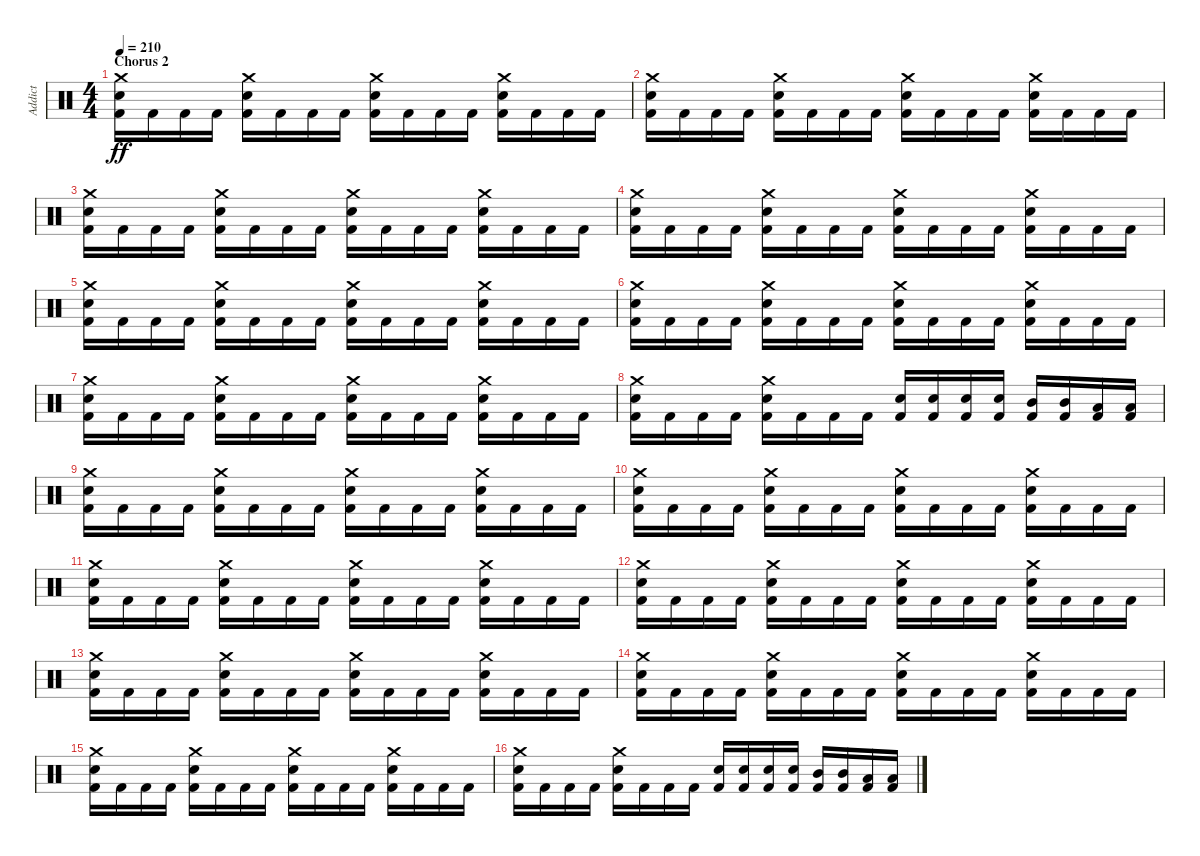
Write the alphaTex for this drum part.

\track ("Addict" "Addict") {instrument percussion}
\staff {score}
\articulation defaults
\ts (4 4)
\section ("" "Chorus 2")
\tempo 210
\clef neutral
\ks c
("Kick (hit) 2" "Snare (hit) 2" "Crash medium (hit)").16{dy ff} "Kick (hit) 2".16 "Kick (hit) 2".16 "Kick (hit) 2".16 ("Kick (hit) 2" "Snare (hit) 2" "Crash medium (hit)").16 "Kick (hit) 2".16 "Kick (hit) 2".16 "Kick (hit) 2".16 ("Kick (hit) 2" "Snare (hit) 2" "Crash medium (hit)").16 "Kick (hit) 2".16 "Kick (hit) 2".16 "Kick (hit) 2".16 ("Kick (hit) 2" "Snare (hit) 2" "Crash medium (hit)").16 "Kick (hit) 2".16 "Kick (hit) 2".16 "Kick (hit) 2".16 |
("Kick (hit) 2" "Snare (hit) 2" "Crash medium (hit)").16 "Kick (hit) 2".16 "Kick (hit) 2".16 "Kick (hit) 2".16 ("Kick (hit) 2" "Snare (hit) 2" "Crash medium (hit)").16 "Kick (hit) 2".16 "Kick (hit) 2".16 "Kick (hit) 2".16 ("Kick (hit) 2" "Snare (hit) 2" "Crash medium (hit)").16 "Kick (hit) 2".16 "Kick (hit) 2".16 "Kick (hit) 2".16 ("Kick (hit) 2" "Snare (hit) 2" "Crash medium (hit)").16 "Kick (hit) 2".16 "Kick (hit) 2".16 "Kick (hit) 2".16 |
("Kick (hit) 2" "Snare (hit) 2" "Crash medium (hit)").16 "Kick (hit) 2".16 "Kick (hit) 2".16 "Kick (hit) 2".16 ("Kick (hit) 2" "Snare (hit) 2" "Crash medium (hit)").16 "Kick (hit) 2".16 "Kick (hit) 2".16 "Kick (hit) 2".16 ("Kick (hit) 2" "Snare (hit) 2" "Crash medium (hit)").16 "Kick (hit) 2".16 "Kick (hit) 2".16 "Kick (hit) 2".16 ("Kick (hit) 2" "Snare (hit) 2" "Crash medium (hit)").16 "Kick (hit) 2".16 "Kick (hit) 2".16 "Kick (hit) 2".16 |
("Kick (hit) 2" "Snare (hit) 2" "Crash medium (hit)").16 "Kick (hit) 2".16 "Kick (hit) 2".16 "Kick (hit) 2".16 ("Kick (hit) 2" "Snare (hit) 2" "Crash medium (hit)").16 "Kick (hit) 2".16 "Kick (hit) 2".16 "Kick (hit) 2".16 ("Kick (hit) 2" "Snare (hit) 2" "Crash medium (hit)").16 "Kick (hit) 2".16 "Kick (hit) 2".16 "Kick (hit) 2".16 ("Kick (hit) 2" "Snare (hit) 2" "Crash medium (hit)").16 "Kick (hit) 2".16 "Kick (hit) 2".16 "Kick (hit) 2".16 |
("Kick (hit) 2" "Snare (hit) 2" "Crash medium (hit)").16 "Kick (hit) 2".16 "Kick (hit) 2".16 "Kick (hit) 2".16 ("Kick (hit) 2" "Snare (hit) 2" "Crash medium (hit)").16 "Kick (hit) 2".16 "Kick (hit) 2".16 "Kick (hit) 2".16 ("Kick (hit) 2" "Snare (hit) 2" "Crash medium (hit)").16 "Kick (hit) 2".16 "Kick (hit) 2".16 "Kick (hit) 2".16 ("Kick (hit) 2" "Snare (hit) 2" "Crash medium (hit)").16 "Kick (hit) 2".16 "Kick (hit) 2".16 "Kick (hit) 2".16 |
("Kick (hit) 2" "Snare (hit) 2" "Crash medium (hit)").16 "Kick (hit) 2".16 "Kick (hit) 2".16 "Kick (hit) 2".16 ("Kick (hit) 2" "Snare (hit) 2" "Crash medium (hit)").16 "Kick (hit) 2".16 "Kick (hit) 2".16 "Kick (hit) 2".16 ("Kick (hit) 2" "Snare (hit) 2" "Crash medium (hit)").16 "Kick (hit) 2".16 "Kick (hit) 2".16 "Kick (hit) 2".16 ("Kick (hit) 2" "Snare (hit) 2" "Crash medium (hit)").16 "Kick (hit) 2".16 "Kick (hit) 2".16 "Kick (hit) 2".16 |
("Kick (hit) 2" "Snare (hit) 2" "Crash medium (hit)").16 "Kick (hit) 2".16 "Kick (hit) 2".16 "Kick (hit) 2".16 ("Kick (hit) 2" "Snare (hit) 2" "Crash medium (hit)").16 "Kick (hit) 2".16 "Kick (hit) 2".16 "Kick (hit) 2".16 ("Kick (hit) 2" "Snare (hit) 2" "Crash medium (hit)").16 "Kick (hit) 2".16 "Kick (hit) 2".16 "Kick (hit) 2".16 ("Kick (hit) 2" "Snare (hit) 2" "Crash medium (hit)").16 "Kick (hit) 2".16 "Kick (hit) 2".16 "Kick (hit) 2".16 |
("Kick (hit) 2" "Snare (hit) 2" "Crash medium (hit)").16 "Kick (hit) 2".16 "Kick (hit) 2".16 "Kick (hit) 2".16 ("Kick (hit) 2" "Snare (hit) 2" "Crash medium (hit)").16 "Kick (hit) 2".16 "Kick (hit) 2".16 "Kick (hit) 2".16 ("Kick (hit) 2" "Snare (hit) 2").16 ("Kick (hit) 2" "Snare (hit) 2").16 ("Kick (hit) 2" "Snare (hit) 2").16 ("Kick (hit) 2" "Snare (hit) 2").16 ("Kick (hit) 2" "Mid Tom (hit)").16 ("Kick (hit) 2" "Mid Tom (hit)").16 ("Kick (hit) 2" "Low Tom (hit)").16 ("Kick (hit) 2" "Low Tom (hit)").16 |
("Kick (hit) 2" "Snare (hit) 2" "Crash medium (hit)").16 "Kick (hit) 2".16 "Kick (hit) 2".16 "Kick (hit) 2".16 ("Kick (hit) 2" "Snare (hit) 2" "Crash medium (hit)").16 "Kick (hit) 2".16 "Kick (hit) 2".16 "Kick (hit) 2".16 ("Kick (hit) 2" "Snare (hit) 2" "Crash medium (hit)").16 "Kick (hit) 2".16 "Kick (hit) 2".16 "Kick (hit) 2".16 ("Kick (hit) 2" "Snare (hit) 2" "Crash medium (hit)").16 "Kick (hit) 2".16 "Kick (hit) 2".16 "Kick (hit) 2".16 |
("Kick (hit) 2" "Snare (hit) 2" "Crash medium (hit)").16 "Kick (hit) 2".16 "Kick (hit) 2".16 "Kick (hit) 2".16 ("Kick (hit) 2" "Snare (hit) 2" "Crash medium (hit)").16 "Kick (hit) 2".16 "Kick (hit) 2".16 "Kick (hit) 2".16 ("Kick (hit) 2" "Snare (hit) 2" "Crash medium (hit)").16 "Kick (hit) 2".16 "Kick (hit) 2".16 "Kick (hit) 2".16 ("Kick (hit) 2" "Snare (hit) 2" "Crash medium (hit)").16 "Kick (hit) 2".16 "Kick (hit) 2".16 "Kick (hit) 2".16 |
("Kick (hit) 2" "Snare (hit) 2" "Crash medium (hit)").16 "Kick (hit) 2".16 "Kick (hit) 2".16 "Kick (hit) 2".16 ("Kick (hit) 2" "Snare (hit) 2" "Crash medium (hit)").16 "Kick (hit) 2".16 "Kick (hit) 2".16 "Kick (hit) 2".16 ("Kick (hit) 2" "Snare (hit) 2" "Crash medium (hit)").16 "Kick (hit) 2".16 "Kick (hit) 2".16 "Kick (hit) 2".16 ("Kick (hit) 2" "Snare (hit) 2" "Crash medium (hit)").16 "Kick (hit) 2".16 "Kick (hit) 2".16 "Kick (hit) 2".16 |
("Kick (hit) 2" "Snare (hit) 2" "Crash medium (hit)").16 "Kick (hit) 2".16 "Kick (hit) 2".16 "Kick (hit) 2".16 ("Kick (hit) 2" "Snare (hit) 2" "Crash medium (hit)").16 "Kick (hit) 2".16 "Kick (hit) 2".16 "Kick (hit) 2".16 ("Kick (hit) 2" "Snare (hit) 2" "Crash medium (hit)").16 "Kick (hit) 2".16 "Kick (hit) 2".16 "Kick (hit) 2".16 ("Kick (hit) 2" "Snare (hit) 2" "Crash medium (hit)").16 "Kick (hit) 2".16 "Kick (hit) 2".16 "Kick (hit) 2".16 |
("Kick (hit) 2" "Snare (hit) 2" "Crash medium (hit)").16 "Kick (hit) 2".16 "Kick (hit) 2".16 "Kick (hit) 2".16 ("Kick (hit) 2" "Snare (hit) 2" "Crash medium (hit)").16 "Kick (hit) 2".16 "Kick (hit) 2".16 "Kick (hit) 2".16 ("Kick (hit) 2" "Snare (hit) 2" "Crash medium (hit)").16 "Kick (hit) 2".16 "Kick (hit) 2".16 "Kick (hit) 2".16 ("Kick (hit) 2" "Snare (hit) 2" "Crash medium (hit)").16 "Kick (hit) 2".16 "Kick (hit) 2".16 "Kick (hit) 2".16 |
("Kick (hit) 2" "Snare (hit) 2" "Crash medium (hit)").16 "Kick (hit) 2".16 "Kick (hit) 2".16 "Kick (hit) 2".16 ("Kick (hit) 2" "Snare (hit) 2" "Crash medium (hit)").16 "Kick (hit) 2".16 "Kick (hit) 2".16 "Kick (hit) 2".16 ("Kick (hit) 2" "Snare (hit) 2" "Crash medium (hit)").16 "Kick (hit) 2".16 "Kick (hit) 2".16 "Kick (hit) 2".16 ("Kick (hit) 2" "Snare (hit) 2" "Crash medium (hit)").16 "Kick (hit) 2".16 "Kick (hit) 2".16 "Kick (hit) 2".16 |
("Kick (hit) 2" "Snare (hit) 2" "Crash medium (hit)").16 "Kick (hit) 2".16 "Kick (hit) 2".16 "Kick (hit) 2".16 ("Kick (hit) 2" "Snare (hit) 2" "Crash medium (hit)").16 "Kick (hit) 2".16 "Kick (hit) 2".16 "Kick (hit) 2".16 ("Kick (hit) 2" "Snare (hit) 2" "Crash medium (hit)").16 "Kick (hit) 2".16 "Kick (hit) 2".16 "Kick (hit) 2".16 ("Kick (hit) 2" "Snare (hit) 2" "Crash medium (hit)").16 "Kick (hit) 2".16 "Kick (hit) 2".16 "Kick (hit) 2".16 |
("Kick (hit) 2" "Snare (hit) 2" "Crash medium (hit)").16 "Kick (hit) 2".16 "Kick (hit) 2".16 "Kick (hit) 2".16 ("Kick (hit) 2" "Snare (hit) 2" "Crash medium (hit)").16 "Kick (hit) 2".16 "Kick (hit) 2".16 "Kick (hit) 2".16 ("Kick (hit) 2" "Snare (hit) 2").16 ("Kick (hit) 2" "Snare (hit) 2").16 ("Kick (hit) 2" "Snare (hit) 2").16 ("Kick (hit) 2" "Snare (hit) 2").16 ("Kick (hit) 2" "Mid Tom (hit)").16 ("Kick (hit) 2" "Mid Tom (hit)").16 ("Kick (hit) 2" "Low Tom (hit)").16 ("Kick (hit) 2" "Low Tom (hit)").16
